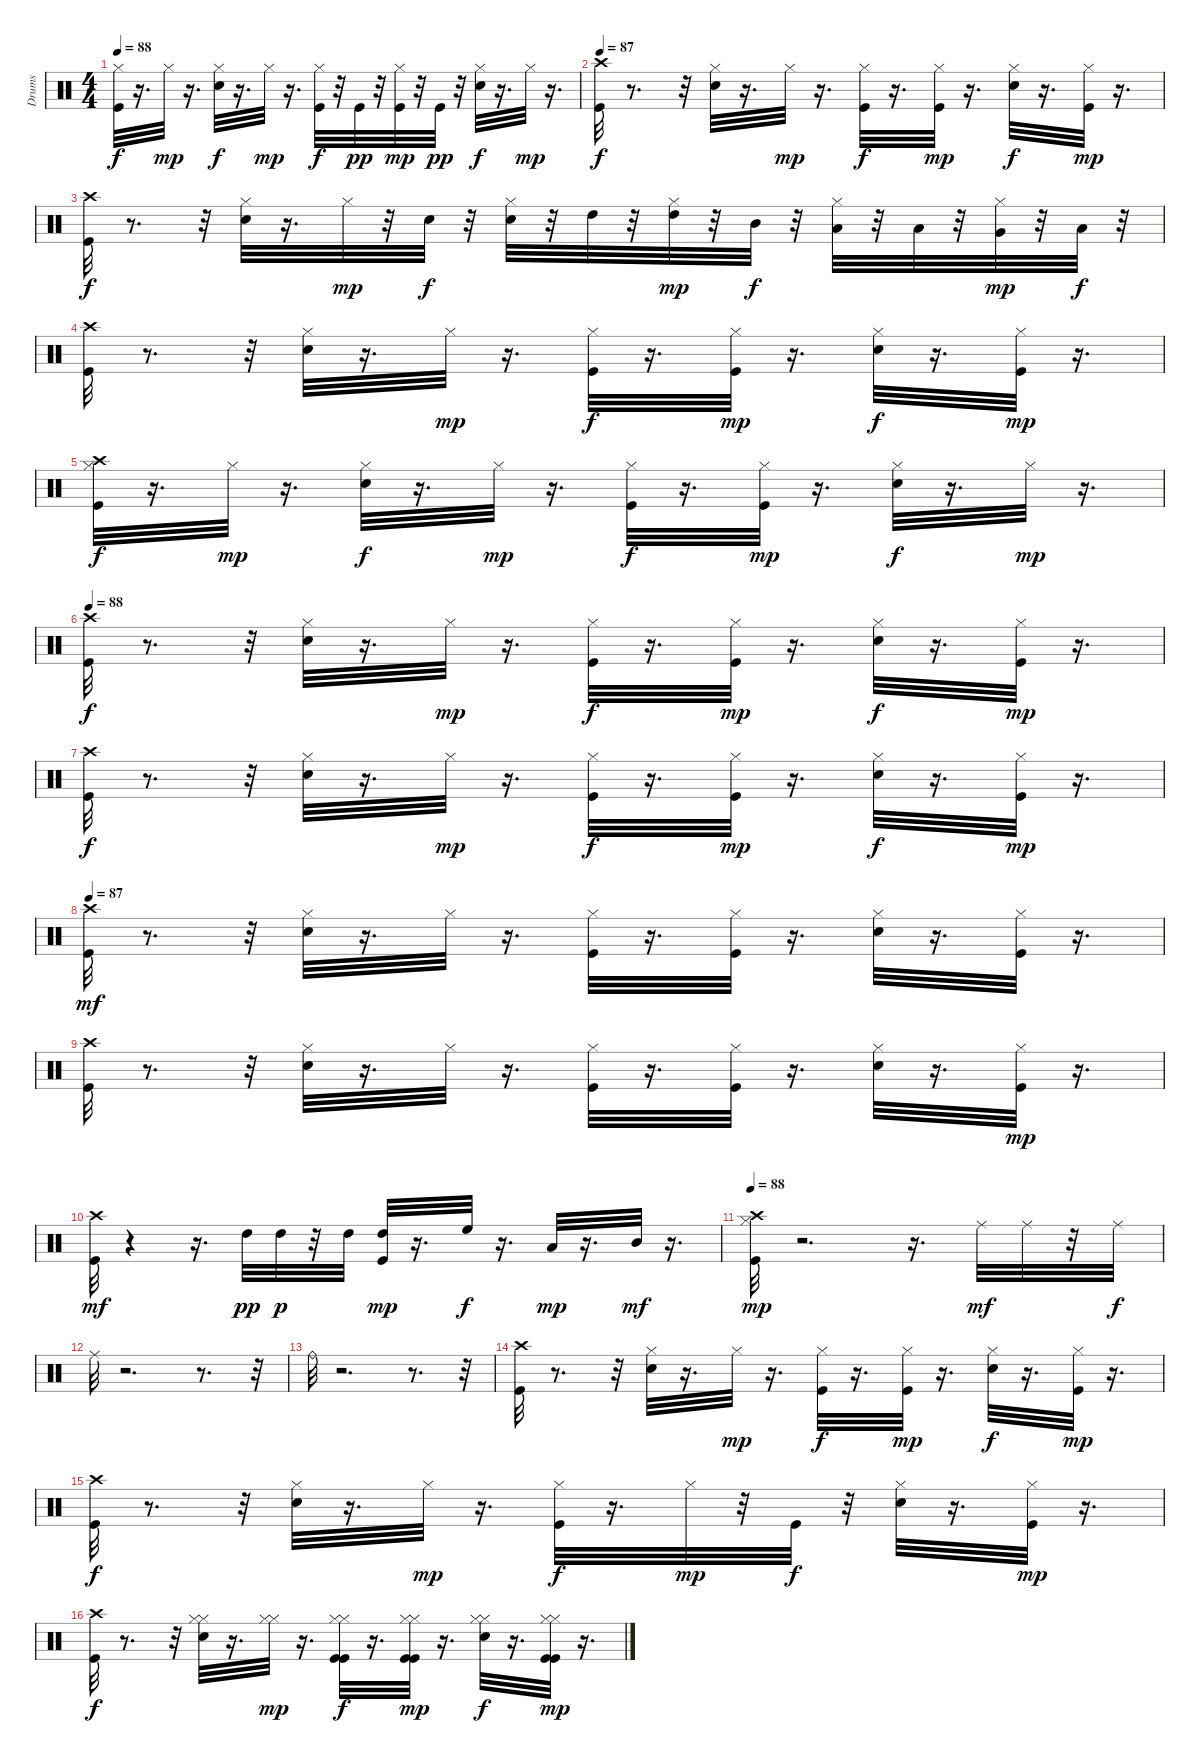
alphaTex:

\track ("Drums" "Drums") {instrument percussion}
\staff {score}
\articulation defaults
\ts (4 4)
\tempo 88
\clef neutral
\ks c
("Kick (hit)" "Hi-Hat (closed)").32{dy f} r.16{d} "Hi-Hat (closed)".32{dy mp} r.16{d} ("Electric Snare (hit)" "Hi-Hat (closed)").32{dy f} r.16{d} "Hi-Hat (closed)".32{dy mp} r.16{d} ("Hi-Hat (closed)" "Kick (hit)").32{dy f} r.32 "Kick (hit)".32{dy pp} r.32 ("Hi-Hat (closed)" "Kick (hit)").32{dy mp} r.32 "Kick (hit)".32{dy pp} r.32 ("Hi-Hat (closed)" "Electric Snare (hit)").32{dy f} r.16{d} "Hi-Hat (closed)".32{dy mp} r.16{d} |
\tempo 87
("Kick (hit)" "Crash high (hit)").32{dy f} r.8{d} r.32 ("Electric Snare (hit)" "Hi-Hat (closed)").32 r.16{d} "Hi-Hat (closed)".32{dy mp} r.16{d} ("Hi-Hat (closed)" "Kick (hit)").32{dy f} r.16{d} ("Hi-Hat (closed)" "Kick (hit)").32{dy mp} r.16{d} ("Electric Snare (hit)" "Hi-Hat (closed)").32{dy f} r.16{d} ("Hi-Hat (closed)" "Kick (hit)").32{dy mp} r.16{d} |
("Kick (hit)" "Crash high (hit)").32{dy f} r.8{d} r.32 ("Electric Snare (hit)" "Hi-Hat (closed)").32 r.16{d} "Hi-Hat (closed)".32{dy mp} r.32 "Electric Snare (hit)".32{dy f} r.32 ("Electric Snare (hit)" "Hi-Hat (closed)").32 r.32 "High Tom (hit)".32 r.32 ("High Tom (hit)" "Hi-Hat (closed)").32{dy mp} r.32 "Mid Tom (hit)".32{dy f} r.32 ("Low Tom (hit)" "Hi-Hat (closed)").32 r.32 "Low Tom (hit)".32 r.32 ("Very Low Tom (hit)" "Hi-Hat (closed)").32{dy mp} r.32 "Low Floor Tom (hit)".32{dy f} r.32 |
("Kick (hit)" "Crash high (hit)").32 r.8{d} r.32 ("Hi-Hat (closed)" "Electric Snare (hit)").32 r.16{d} "Hi-Hat (closed)".32{dy mp} r.16{d} ("Kick (hit)" "Hi-Hat (closed)").32{dy f} r.16{d} ("Kick (hit)" "Hi-Hat (closed)").32{dy mp} r.16{d} ("Hi-Hat (closed)" "Electric Snare (hit)").32{dy f} r.16{d} ("Hi-Hat (closed)" "Kick (hit)").32{dy mp} r.16{d} |
("Crash high (hit)" "Hi-Hat (closed)" "Kick (hit)").32{dy f} r.16{d} "Hi-Hat (closed)".32{dy mp} r.16{d} ("Electric Snare (hit)" "Hi-Hat (closed)").32{dy f} r.16{d} "Hi-Hat (closed)".32{dy mp} r.16{d} ("Hi-Hat (closed)" "Kick (hit)").32{dy f} r.16{d} ("Hi-Hat (closed)" "Kick (hit)").32{dy mp} r.16{d} ("Electric Snare (hit)" "Hi-Hat (closed)").32{dy f} r.16{d} "Hi-Hat (closed)".32{dy mp} r.16{d} |
\tempo 88
("Kick (hit)" "Crash high (hit)").32{dy f} r.8{d} r.32 ("Electric Snare (hit)" "Hi-Hat (closed)").32 r.16{d} "Hi-Hat (closed)".32{dy mp} r.16{d} ("Hi-Hat (closed)" "Kick (hit)").32{dy f} r.16{d} ("Hi-Hat (closed)" "Kick (hit)").32{dy mp} r.16{d} ("Electric Snare (hit)" "Hi-Hat (closed)").32{dy f} r.16{d} ("Hi-Hat (closed)" "Kick (hit)").32{dy mp} r.16{d} |
("Kick (hit)" "Crash high (hit)").32{dy f} r.8{d} r.32 ("Electric Snare (hit)" "Hi-Hat (closed)").32 r.16{d} "Hi-Hat (closed)".32{dy mp} r.16{d} ("Hi-Hat (closed)" "Kick (hit)").32{dy f} r.16{d} ("Hi-Hat (closed)" "Kick (hit)").32{dy mp} r.16{d} ("Electric Snare (hit)" "Hi-Hat (closed)").32{dy f} r.16{d} ("Hi-Hat (closed)" "Kick (hit)").32{dy mp} r.16{d} |
\tempo 87
("Kick (hit)" "Crash high (hit)").32{dy mf} r.8{d} r.32 ("Electric Snare (hit)" "Hi-Hat (closed)").32 r.16{d} "Hi-Hat (closed)".32 r.16{d} ("Hi-Hat (closed)" "Kick (hit)").32 r.16{d} ("Hi-Hat (closed)" "Kick (hit)").32 r.16{d} ("Electric Snare (hit)" "Hi-Hat (closed)").32 r.16{d} ("Hi-Hat (closed)" "Kick (hit)").32 r.16{d} |
("Kick (hit)" "Crash high (hit)").32 r.8{d} r.32 ("Electric Snare (hit)" "Hi-Hat (closed)").32 r.16{d} "Hi-Hat (closed)".32 r.16{d} ("Hi-Hat (closed)" "Kick (hit)").32 r.16{d} ("Hi-Hat (closed)" "Kick (hit)").32 r.16{d} ("Electric Snare (hit)" "Hi-Hat (closed)").32 r.16{d} ("Hi-Hat (closed)" "Kick (hit)").32{dy mp} r.16{d} |
("Crash high (hit)" "Kick (hit)").32{dy mf} r.4 r.16{d} "High Tom (hit)".32{dy pp} "High Tom (hit)".32{dy p} r.32 "High Tom (hit)".32 ("Kick (hit)" "High Tom (hit)").32{dy mp} r.16{d} "High Floor Tom (hit)".32{dy f} r.16{d} "Low Tom (hit)".32{dy mp} r.16{d} "Mid Tom (hit)".32{dy mf} r.16{d} |
\tempo 88
("Crash high (hit)" "Hi-Hat (closed)" "Kick (hit)").32{dy mp} r.2{d} r.16{d} "Ride (middle)".32{dy mf} "Ride (middle)".32 r.32 "Ride (middle)".32{dy f} |
"Ride (middle)".32 r.2{d} r.8{d} r.32 |
"Ride (bell)".32 r.2{d} r.8{d} r.32 |
("Kick (hit)" "Crash high (hit)").32 r.8{d} r.32 ("Hi-Hat (closed)" "Electric Snare (hit)").32 r.16{d} "Hi-Hat (closed)".32{dy mp} r.16{d} ("Hi-Hat (closed)" "Kick (hit)").32{dy f} r.16{d} ("Hi-Hat (closed)" "Kick (hit)").32{dy mp} r.16{d} ("Electric Snare (hit)" "Hi-Hat (closed)").32{dy f} r.16{d} ("Kick (hit)" "Hi-Hat (closed)").32{dy mp} r.16{d} |
("Kick (hit)" "Crash high (hit)").32{dy f} r.8{d} r.32 ("Electric Snare (hit)" "Hi-Hat (closed)").32 r.16{d} "Hi-Hat (closed)".32{dy mp} r.16{d} ("Hi-Hat (closed)" "Kick (hit)").32{dy f} r.16{d} "Hi-Hat (closed)".32{dy mp} r.32 "Kick (hit)".32{dy f} r.32 ("Electric Snare (hit)" "Hi-Hat (closed)").32 r.16{d} ("Hi-Hat (closed)" "Kick (hit)").32{dy mp} r.16{d} |
("Kick (hit)" "Crash high (hit)").32{dy f} r.8{d} r.32 ("Electric Snare (hit)" "Hi-Hat (closed)" "Hi-Hat (closed)").32 r.16{d} ("Hi-Hat (closed)" "Hi-Hat (closed)").32{dy mp} r.16{d} ("Hi-Hat (closed)" "Kick (hit)" "Hi-Hat (closed)" "Kick (hit)").32{dy f} r.16{d} ("Hi-Hat (closed)" "Kick (hit)" "Hi-Hat (closed)" "Kick (hit)").32{dy mp} r.16{d} ("Electric Snare (hit)" "Hi-Hat (closed)" "Hi-Hat (closed)").32{dy f} r.16{d} ("Hi-Hat (closed)" "Kick (hit)" "Hi-Hat (closed)" "Kick (hit)").32{dy mp} r.16{d}
